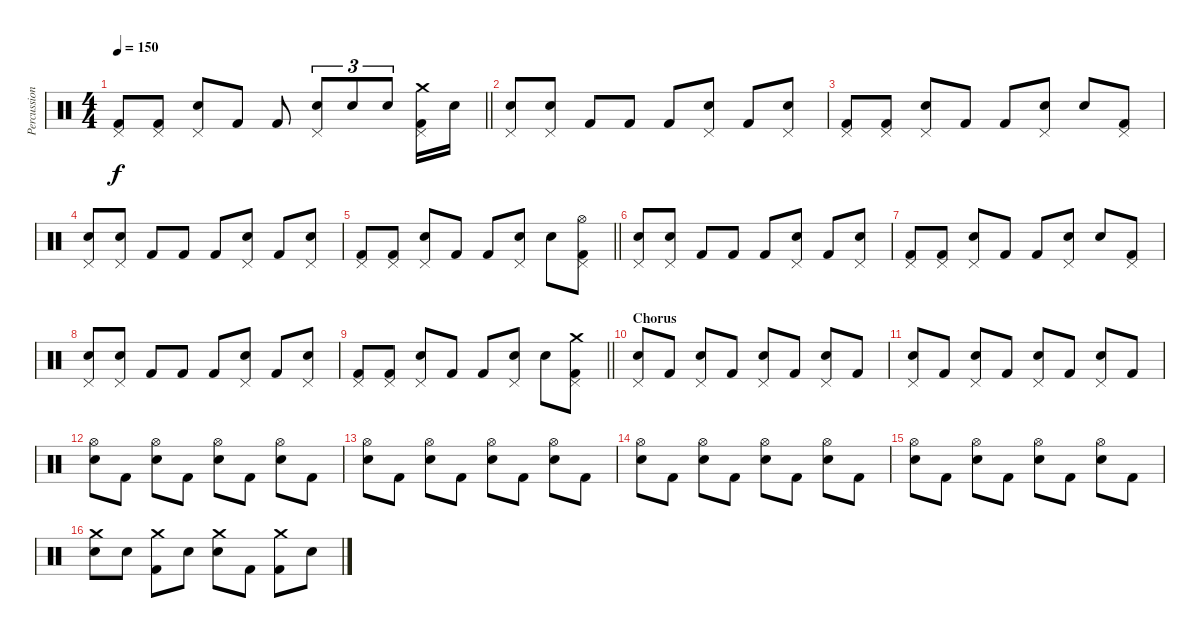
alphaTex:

\track ("Percussion" "Percussion") {instrument percussion}
\staff {score}
\articulation defaults
\ts (4 4)
\tempo 150
\clef neutral
\barLineRight lightlight
\ks c
("Pedal Hi-Hat (hit)" "Kick (hit) 2").8{dy f} ("Pedal Hi-Hat (hit)" "Kick (hit) 2").8 ("Pedal Hi-Hat (hit)" "Electric Snare (hit)").8 "Kick (hit) 2".8 "Kick (hit) 2".8 ("Pedal Hi-Hat (hit)" "Electric Snare (hit)").8{tu (3 2)} "Electric Snare (hit)".8{tu (3 2)} "Electric Snare (hit)".8{tu (3 2)} ("Crash medium (hit)" "Pedal Hi-Hat (hit)" "Kick (hit) 2").16 "Electric Snare (hit)".16 |
("Pedal Hi-Hat (hit)" "Electric Snare (hit)").8 ("Pedal Hi-Hat (hit)" "Electric Snare (hit)").8 "Kick (hit) 2".8 "Kick (hit) 2".8 "Kick (hit) 2".8 ("Pedal Hi-Hat (hit)" "Electric Snare (hit)").8 "Kick (hit) 2".8 ("Pedal Hi-Hat (hit)" "Electric Snare (hit)").8 |
("Pedal Hi-Hat (hit)" "Kick (hit) 2").8 ("Pedal Hi-Hat (hit)" "Kick (hit) 2").8 ("Pedal Hi-Hat (hit)" "Electric Snare (hit)").8 "Kick (hit) 2".8 "Kick (hit) 2".8 ("Pedal Hi-Hat (hit)" "Electric Snare (hit)").8 "Electric Snare (hit)".8 ("Pedal Hi-Hat (hit)" "Kick (hit) 2").8 |
("Pedal Hi-Hat (hit)" "Electric Snare (hit)").8 ("Pedal Hi-Hat (hit)" "Electric Snare (hit)").8 "Kick (hit) 2".8 "Kick (hit) 2".8 "Kick (hit) 2".8 ("Pedal Hi-Hat (hit)" "Electric Snare (hit)").8 "Kick (hit) 2".8 ("Pedal Hi-Hat (hit)" "Electric Snare (hit)").8 |
\barLineRight lightlight
("Pedal Hi-Hat (hit)" "Kick (hit) 2").8 ("Pedal Hi-Hat (hit)" "Kick (hit) 2").8 ("Pedal Hi-Hat (hit)" "Electric Snare (hit)").8 "Kick (hit) 2".8 "Kick (hit) 2".8 ("Pedal Hi-Hat (hit)" "Electric Snare (hit)").8 "Electric Snare (hit)".8 ("Hi-Hat (open)" "Pedal Hi-Hat (hit)" "Kick (hit) 2").8 |
("Pedal Hi-Hat (hit)" "Electric Snare (hit)").8 ("Pedal Hi-Hat (hit)" "Electric Snare (hit)").8 "Kick (hit) 2".8 "Kick (hit) 2".8 "Kick (hit) 2".8 ("Pedal Hi-Hat (hit)" "Electric Snare (hit)").8 "Kick (hit) 2".8 ("Pedal Hi-Hat (hit)" "Electric Snare (hit)").8 |
("Pedal Hi-Hat (hit)" "Kick (hit) 2").8 ("Pedal Hi-Hat (hit)" "Kick (hit) 2").8 ("Pedal Hi-Hat (hit)" "Electric Snare (hit)").8 "Kick (hit) 2".8 "Kick (hit) 2".8 ("Pedal Hi-Hat (hit)" "Electric Snare (hit)").8 "Electric Snare (hit)".8 ("Pedal Hi-Hat (hit)" "Kick (hit) 2").8 |
("Pedal Hi-Hat (hit)" "Electric Snare (hit)").8 ("Pedal Hi-Hat (hit)" "Electric Snare (hit)").8 "Kick (hit) 2".8 "Kick (hit) 2".8 "Kick (hit) 2".8 ("Pedal Hi-Hat (hit)" "Electric Snare (hit)").8 "Kick (hit) 2".8 ("Pedal Hi-Hat (hit)" "Electric Snare (hit)").8 |
\barLineRight lightlight
("Pedal Hi-Hat (hit)" "Kick (hit) 2").8 ("Pedal Hi-Hat (hit)" "Kick (hit) 2").8 ("Pedal Hi-Hat (hit)" "Electric Snare (hit)").8 "Kick (hit) 2".8 "Kick (hit) 2".8 ("Pedal Hi-Hat (hit)" "Electric Snare (hit)").8 "Electric Snare (hit)".8 ("Crash medium (hit)" "Pedal Hi-Hat (hit)" "Kick (hit) 2").8 |
\section ("" "Chorus")
("Pedal Hi-Hat (hit)" "Electric Snare (hit)").8 "Kick (hit) 2".8 ("Pedal Hi-Hat (hit)" "Electric Snare (hit)").8 "Kick (hit) 2".8 ("Pedal Hi-Hat (hit)" "Electric Snare (hit)").8 "Kick (hit) 2".8 ("Pedal Hi-Hat (hit)" "Electric Snare (hit)").8 "Kick (hit) 2".8 |
("Pedal Hi-Hat (hit)" "Electric Snare (hit)").8 "Kick (hit) 2".8 ("Pedal Hi-Hat (hit)" "Electric Snare (hit)").8 "Kick (hit) 2".8 ("Pedal Hi-Hat (hit)" "Electric Snare (hit)").8 "Kick (hit) 2".8 ("Pedal Hi-Hat (hit)" "Electric Snare (hit)").8 "Kick (hit) 2".8 |
("Hi-Hat (open)" "Electric Snare (hit)").8 "Kick (hit) 2".8 ("Hi-Hat (open)" "Electric Snare (hit)").8 "Kick (hit) 2".8 ("Hi-Hat (open)" "Electric Snare (hit)").8 "Kick (hit) 2".8 ("Hi-Hat (open)" "Electric Snare (hit)").8 "Kick (hit) 2".8 |
("Hi-Hat (open)" "Electric Snare (hit)").8 "Kick (hit) 2".8 ("Hi-Hat (open)" "Electric Snare (hit)").8 "Kick (hit) 2".8 ("Hi-Hat (open)" "Electric Snare (hit)").8 "Kick (hit) 2".8 ("Hi-Hat (open)" "Electric Snare (hit)").8 "Kick (hit) 2".8 |
("Hi-Hat (open)" "Electric Snare (hit)").8 "Kick (hit) 2".8 ("Hi-Hat (open)" "Electric Snare (hit)").8 "Kick (hit) 2".8 ("Hi-Hat (open)" "Electric Snare (hit)").8 "Kick (hit) 2".8 ("Hi-Hat (open)" "Electric Snare (hit)").8 "Kick (hit) 2".8 |
("Hi-Hat (open)" "Electric Snare (hit)").8 "Kick (hit) 2".8 ("Hi-Hat (open)" "Electric Snare (hit)").8 "Kick (hit) 2".8 ("Hi-Hat (open)" "Electric Snare (hit)").8 "Kick (hit) 2".8 ("Hi-Hat (open)" "Electric Snare (hit)").8 "Kick (hit) 2".8 |
("Crash medium (hit)" "Electric Snare (hit)").8 "Electric Snare (hit)".8 ("Crash medium (hit)" "Kick (hit) 2").8 "Electric Snare (hit)".8 ("Crash medium (hit)" "Electric Snare (hit)").8 "Kick (hit) 2".8 ("Crash medium (hit)" "Kick (hit) 2").8 "Electric Snare (hit)".8
